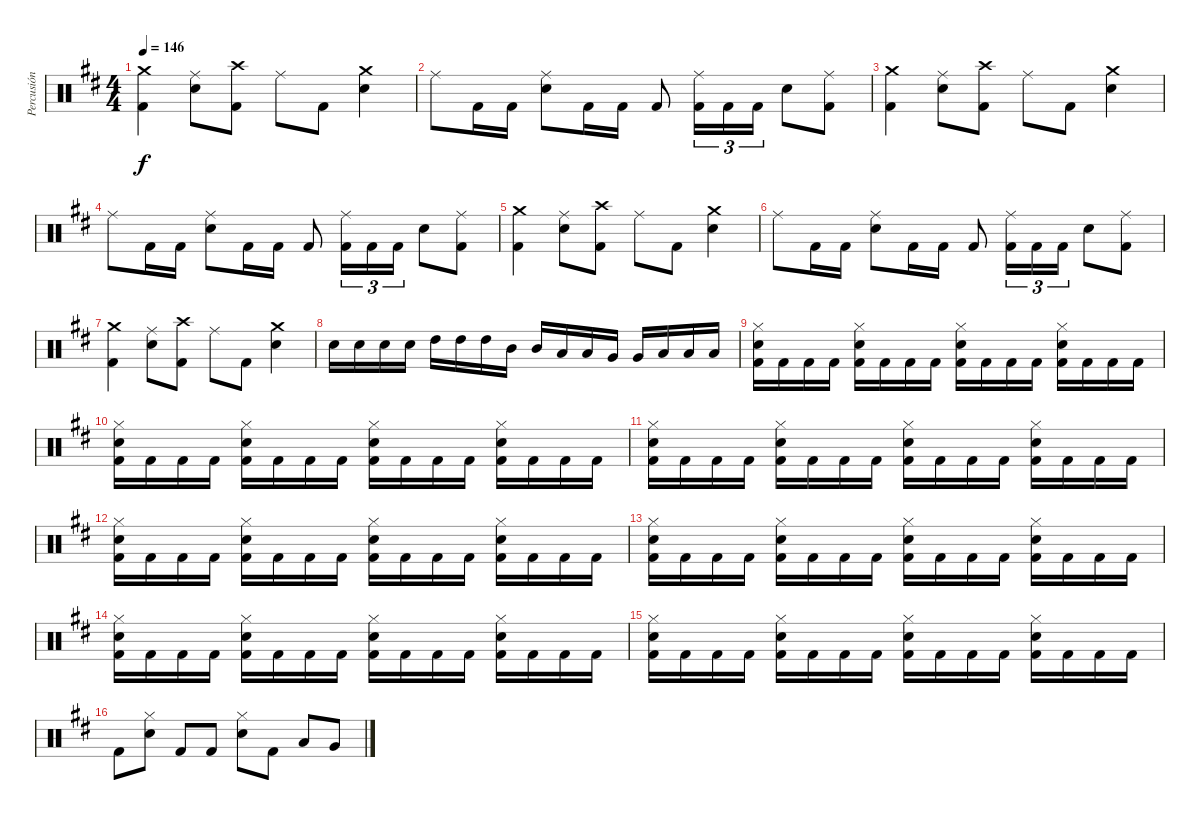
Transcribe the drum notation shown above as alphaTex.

\track ("Percusión" "Percusión") {instrument percussion}
\staff {score}
\articulation defaults
\ts (4 4)
\tempo 146
\clef neutral
\ks d
("Crash medium (hit)" "Kick (hit) 2").4{dy f} ("Ride (middle)" "Snare (hit) 2").8 ("Crash high (hit)" "Kick (hit) 2").8 "Ride (middle)".8 "Kick (hit) 2".8 ("Crash medium (hit)" "Snare (hit) 2").4 |
"Ride (middle)".8 "Kick (hit) 2".16 "Kick (hit) 2".16 ("Ride (middle)" "Snare (hit) 2").8 "Kick (hit) 2".16 "Kick (hit) 2".16 "Kick (hit) 2".8 ("Ride (middle)" "Kick (hit) 2").16{tu (3 2)} "Kick (hit) 2".16{tu (3 2)} "Kick (hit) 2".16{tu (3 2)} "Snare (hit) 2".8 ("Ride (middle)" "Kick (hit) 2").8 |
("Crash medium (hit)" "Kick (hit) 2").4 ("Ride (middle)" "Snare (hit) 2").8 ("Crash high (hit)" "Kick (hit) 2").8 "Ride (middle)".8 "Kick (hit) 2".8 ("Crash medium (hit)" "Snare (hit) 2").4 |
"Ride (middle)".8 "Kick (hit) 2".16 "Kick (hit) 2".16 ("Ride (middle)" "Snare (hit) 2").8 "Kick (hit) 2".16 "Kick (hit) 2".16 "Kick (hit) 2".8 ("Ride (middle)" "Kick (hit) 2").16{tu (3 2)} "Kick (hit) 2".16{tu (3 2)} "Kick (hit) 2".16{tu (3 2)} "Snare (hit) 2".8 ("Ride (middle)" "Kick (hit) 2").8 |
("Crash medium (hit)" "Kick (hit) 2").4 ("Ride (middle)" "Snare (hit) 2").8 ("Crash high (hit)" "Kick (hit) 2").8 "Ride (middle)".8 "Kick (hit) 2".8 ("Crash medium (hit)" "Snare (hit) 2").4 |
"Ride (middle)".8 "Kick (hit) 2".16 "Kick (hit) 2".16 ("Ride (middle)" "Snare (hit) 2").8 "Kick (hit) 2".16 "Kick (hit) 2".16 "Kick (hit) 2".8 ("Ride (middle)" "Kick (hit) 2").16{tu (3 2)} "Kick (hit) 2".16{tu (3 2)} "Kick (hit) 2".16{tu (3 2)} "Snare (hit) 2".8 ("Ride (middle)" "Kick (hit) 2").8 |
("Crash medium (hit)" "Kick (hit) 2").4 ("Ride (middle)" "Snare (hit) 2").8 ("Crash high (hit)" "Kick (hit) 2").8 "Ride (middle)".8 "Kick (hit) 2".8 ("Crash medium (hit)" "Snare (hit) 2").4 |
"Snare (hit) 2".16 "Snare (hit) 2".16 "Snare (hit) 2".16 "Snare (hit) 2".16 "High Tom (hit)".16 "High Tom (hit)".16 "High Tom (hit)".16 "Mid Tom (hit)".16 "Mid Tom (hit)".16 "Low Tom (hit)".16 "Low Tom (hit)".16 "Very Low Tom (hit)".16 "Very Low Tom (hit)".16 "Low Floor Tom (hit)".16 "Low Floor Tom (hit)".16 "Low Floor Tom (hit)".16 |
("Hi-Hat (closed)" "Snare (hit) 2" "Kick (hit) 2").16 "Kick (hit) 2".16 "Kick (hit) 2".16 "Kick (hit) 2".16 ("Hi-Hat (closed)" "Snare (hit) 2" "Kick (hit) 2").16 "Kick (hit) 2".16 "Kick (hit) 2".16 "Kick (hit) 2".16 ("Hi-Hat (closed)" "Snare (hit) 2" "Kick (hit) 2").16 "Kick (hit) 2".16 "Kick (hit) 2".16 "Kick (hit) 2".16 ("Hi-Hat (closed)" "Snare (hit) 2" "Kick (hit) 2").16 "Kick (hit) 2".16 "Kick (hit) 2".16 "Kick (hit) 2".16 |
("Hi-Hat (closed)" "Snare (hit) 2" "Kick (hit) 2").16 "Kick (hit) 2".16 "Kick (hit) 2".16 "Kick (hit) 2".16 ("Hi-Hat (closed)" "Snare (hit) 2" "Kick (hit) 2").16 "Kick (hit) 2".16 "Kick (hit) 2".16 "Kick (hit) 2".16 ("Hi-Hat (closed)" "Snare (hit) 2" "Kick (hit) 2").16 "Kick (hit) 2".16 "Kick (hit) 2".16 "Kick (hit) 2".16 ("Hi-Hat (closed)" "Snare (hit) 2" "Kick (hit) 2").16 "Kick (hit) 2".16 "Kick (hit) 2".16 "Kick (hit) 2".16 |
("Hi-Hat (closed)" "Snare (hit) 2" "Kick (hit) 2").16 "Kick (hit) 2".16 "Kick (hit) 2".16 "Kick (hit) 2".16 ("Hi-Hat (closed)" "Snare (hit) 2" "Kick (hit) 2").16 "Kick (hit) 2".16 "Kick (hit) 2".16 "Kick (hit) 2".16 ("Hi-Hat (closed)" "Snare (hit) 2" "Kick (hit) 2").16 "Kick (hit) 2".16 "Kick (hit) 2".16 "Kick (hit) 2".16 ("Hi-Hat (closed)" "Snare (hit) 2" "Kick (hit) 2").16 "Kick (hit) 2".16 "Kick (hit) 2".16 "Kick (hit) 2".16 |
("Hi-Hat (closed)" "Snare (hit) 2" "Kick (hit) 2").16 "Kick (hit) 2".16 "Kick (hit) 2".16 "Kick (hit) 2".16 ("Hi-Hat (closed)" "Snare (hit) 2" "Kick (hit) 2").16 "Kick (hit) 2".16 "Kick (hit) 2".16 "Kick (hit) 2".16 ("Hi-Hat (closed)" "Snare (hit) 2" "Kick (hit) 2").16 "Kick (hit) 2".16 "Kick (hit) 2".16 "Kick (hit) 2".16 ("Hi-Hat (closed)" "Snare (hit) 2" "Kick (hit) 2").16 "Kick (hit) 2".16 "Kick (hit) 2".16 "Kick (hit) 2".16 |
("Hi-Hat (closed)" "Snare (hit) 2" "Kick (hit) 2").16 "Kick (hit) 2".16 "Kick (hit) 2".16 "Kick (hit) 2".16 ("Hi-Hat (closed)" "Snare (hit) 2" "Kick (hit) 2").16 "Kick (hit) 2".16 "Kick (hit) 2".16 "Kick (hit) 2".16 ("Hi-Hat (closed)" "Snare (hit) 2" "Kick (hit) 2").16 "Kick (hit) 2".16 "Kick (hit) 2".16 "Kick (hit) 2".16 ("Hi-Hat (closed)" "Snare (hit) 2" "Kick (hit) 2").16 "Kick (hit) 2".16 "Kick (hit) 2".16 "Kick (hit) 2".16 |
("Hi-Hat (closed)" "Snare (hit) 2" "Kick (hit) 2").16 "Kick (hit) 2".16 "Kick (hit) 2".16 "Kick (hit) 2".16 ("Hi-Hat (closed)" "Snare (hit) 2" "Kick (hit) 2").16 "Kick (hit) 2".16 "Kick (hit) 2".16 "Kick (hit) 2".16 ("Hi-Hat (closed)" "Snare (hit) 2" "Kick (hit) 2").16 "Kick (hit) 2".16 "Kick (hit) 2".16 "Kick (hit) 2".16 ("Hi-Hat (closed)" "Snare (hit) 2" "Kick (hit) 2").16 "Kick (hit) 2".16 "Kick (hit) 2".16 "Kick (hit) 2".16 |
("Hi-Hat (closed)" "Snare (hit) 2" "Kick (hit) 2").16 "Kick (hit) 2".16 "Kick (hit) 2".16 "Kick (hit) 2".16 ("Hi-Hat (closed)" "Snare (hit) 2" "Kick (hit) 2").16 "Kick (hit) 2".16 "Kick (hit) 2".16 "Kick (hit) 2".16 ("Hi-Hat (closed)" "Snare (hit) 2" "Kick (hit) 2").16 "Kick (hit) 2".16 "Kick (hit) 2".16 "Kick (hit) 2".16 ("Hi-Hat (closed)" "Snare (hit) 2" "Kick (hit) 2").16 "Kick (hit) 2".16 "Kick (hit) 2".16 "Kick (hit) 2".16 |
"Kick (hit) 2".8 ("Hi-Hat (closed)" "Snare (hit) 2").8 "Kick (hit) 2".8 "Kick (hit) 2".8 ("Hi-Hat (closed)" "Snare (hit) 2").8 "Kick (hit) 2".8 "Low Floor Tom (hit)".8 "Very Low Tom (hit)".8
